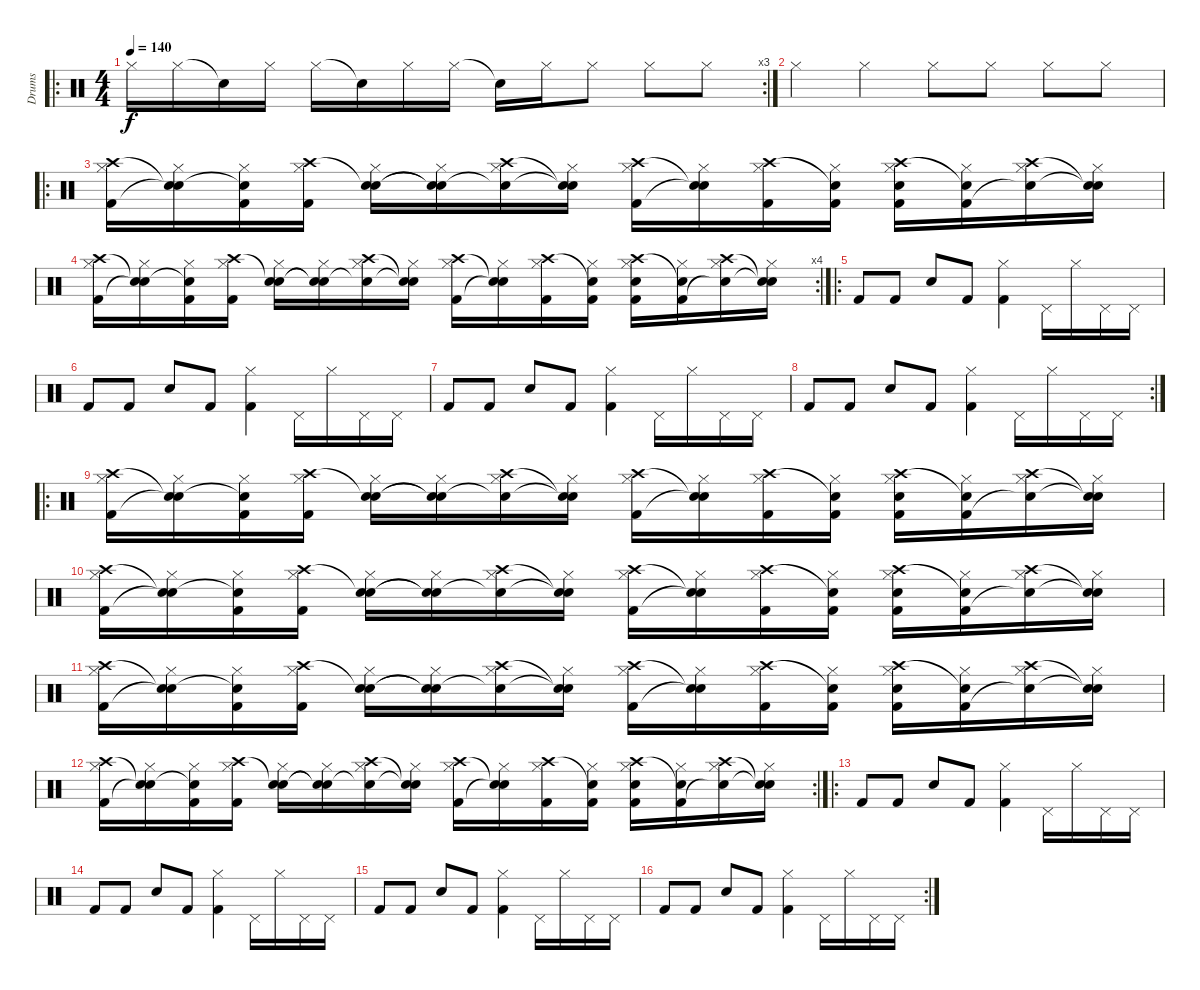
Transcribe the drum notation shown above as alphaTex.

\track ("Drums" "Drums") {instrument percussion}
\staff {score}
\articulation defaults
\ro
\rc 3
\ts (4 4)
\tempo 140
\clef neutral
\ks c "Hi-Hat (closed)".16{dy f} "Hi-Hat (closed)".16 "Snare (hit)"{t}.16 "Hi-Hat (closed)".16 "Hi-Hat (closed)".16 "Snare (hit)"{t}.16 "Hi-Hat (closed)".16 "Hi-Hat (closed)".16 "Snare (hit)"{t}.16 "Hi-Hat (closed)".16 "Hi-Hat (closed)".8 "Hi-Hat (closed)".8 "Hi-Hat (closed)".8
|
"Hi-Hat (closed)".4 "Hi-Hat (closed)".4 "Hi-Hat (closed)".8 "Hi-Hat (closed)".8 "Hi-Hat (closed)".8 "Hi-Hat (closed)".8 |
\ro
("Crash high (hit)" "Hi-Hat (closed)" "Kick (hit) 2").16 ("Snare (hit)"{t} "Hi-Hat (closed)" "Snare (hit)"{t}).16 ("Snare (hit)"{t} "Hi-Hat (closed)" "Kick (hit) 2").16 ("Crash high (hit)" "Hi-Hat (closed)" "Kick (hit) 2").16 ("Snare (hit)"{t} "Hi-Hat (closed)" "Electric Snare (hit)").16 ("Snare (hit)"{t} "Hi-Hat (closed)" "Snare (hit)"{t}).16 ("Crash high (hit)" "Hi-Hat (closed)" "Snare (hit)"{t}).16 ("Snare (hit)"{t} "Hi-Hat (closed)" "Snare (hit)"{t}).16 ("Crash high (hit)" "Hi-Hat (closed)" "Kick (hit) 2").16 ("Snare (hit)"{t} "Hi-Hat (closed)" "Snare (hit)"{t}).16 ("Crash high (hit)" "Hi-Hat (closed)" "Kick (hit) 2").16 ("Snare (hit)"{t} "Hi-Hat (closed)" "Kick (hit) 2").16 ("Crash high (hit)" "Hi-Hat (closed)" "Snare (hit) 2" "Kick (hit) 2").16 ("Snare (hit)"{t} "Hi-Hat (closed)" "Kick (hit) 2").16 ("Crash high (hit)" "Hi-Hat (closed)" "Snare (hit)"{t}).16 ("Snare (hit)"{t} "Hi-Hat (closed)" "Snare (hit)"{t}).16 |
\rc 4
("Crash high (hit)" "Hi-Hat (closed)" "Kick (hit) 2").16 ("Snare (hit)"{t} "Hi-Hat (closed)" "Snare (hit)"{t}).16 ("Snare (hit)"{t} "Hi-Hat (closed)" "Kick (hit) 2").16 ("Crash high (hit)" "Hi-Hat (closed)" "Kick (hit) 2").16 ("Snare (hit)"{t} "Hi-Hat (closed)" "Electric Snare (hit)").16 ("Snare (hit)"{t} "Hi-Hat (closed)" "Snare (hit)"{t}).16 ("Crash high (hit)" "Hi-Hat (closed)" "Snare (hit)"{t}).16 ("Snare (hit)"{t} "Hi-Hat (closed)" "Snare (hit)"{t}).16 ("Crash high (hit)" "Hi-Hat (closed)" "Kick (hit) 2").16 ("Snare (hit)"{t} "Hi-Hat (closed)" "Snare (hit)"{t}).16 ("Crash high (hit)" "Hi-Hat (closed)" "Kick (hit) 2").16 ("Snare (hit)"{t} "Hi-Hat (closed)" "Kick (hit) 2").16 ("Crash high (hit)" "Hi-Hat (closed)" "Snare (hit) 2" "Kick (hit) 2").16 ("Snare (hit)"{t} "Hi-Hat (closed)" "Kick (hit) 2").16 ("Crash high (hit)" "Hi-Hat (closed)" "Snare (hit)"{t}).16 ("Snare (hit)"{t} "Hi-Hat (closed)" "Snare (hit)"{t}).16 |
\ro "Kick (hit) 2".8 "Kick (hit) 2".8 "Snare (hit) 2".8 "Kick (hit) 2".8
("Hi-Hat (closed)" "Kick (hit) 2").4 "Pedal Hi-Hat (hit)".16 "Hi-Hat (closed)".16 "Pedal Hi-Hat (hit)".16 "Pedal Hi-Hat (hit)".16 |
"Kick (hit) 2".8 "Kick (hit) 2".8 "Snare (hit) 2".8 "Kick (hit) 2".8 ("Hi-Hat (closed)" "Kick (hit) 2").4 "Pedal Hi-Hat (hit)".16 "Hi-Hat (closed)".16 "Pedal Hi-Hat (hit)".16 "Pedal Hi-Hat (hit)".16 |
"Kick (hit) 2".8 "Kick (hit) 2".8 "Snare (hit) 2".8 "Kick (hit) 2".8 ("Hi-Hat (closed)" "Kick (hit) 2").4 "Pedal Hi-Hat (hit)".16 "Hi-Hat (closed)".16 "Pedal Hi-Hat (hit)".16 "Pedal Hi-Hat (hit)".16 |
\rc 2 "Kick (hit) 2".8 "Kick (hit) 2".8 "Snare (hit) 2".8 "Kick (hit) 2".8
("Hi-Hat (closed)" "Kick (hit) 2").4 "Pedal Hi-Hat (hit)".16 "Hi-Hat (closed)".16 "Pedal Hi-Hat (hit)".16 "Pedal Hi-Hat (hit)".16 |
\ro
("Crash high (hit)" "Hi-Hat (closed)" "Kick (hit) 2").16 ("Snare (hit)"{t} "Hi-Hat (closed)" "Snare (hit)"{t}).16 ("Snare (hit)"{t} "Hi-Hat (closed)" "Kick (hit) 2").16 ("Crash high (hit)" "Hi-Hat (closed)" "Kick (hit) 2").16 ("Snare (hit)"{t} "Hi-Hat (closed)" "Electric Snare (hit)").16 ("Snare (hit)"{t} "Hi-Hat (closed)" "Snare (hit)"{t}).16 ("Crash high (hit)" "Hi-Hat (closed)" "Snare (hit)"{t}).16 ("Snare (hit)"{t} "Hi-Hat (closed)" "Snare (hit)"{t}).16 ("Crash high (hit)" "Hi-Hat (closed)" "Kick (hit) 2").16 ("Snare (hit)"{t} "Hi-Hat (closed)" "Snare (hit)"{t}).16 ("Crash high (hit)" "Hi-Hat (closed)" "Kick (hit) 2").16 ("Snare (hit)"{t} "Hi-Hat (closed)" "Kick (hit) 2").16 ("Crash high (hit)" "Hi-Hat (closed)" "Snare (hit) 2" "Kick (hit) 2").16 ("Snare (hit)"{t} "Hi-Hat (closed)" "Kick (hit) 2").16 ("Crash high (hit)" "Hi-Hat (closed)" "Snare (hit)"{t}).16 ("Snare (hit)"{t} "Hi-Hat (closed)" "Snare (hit)"{t}).16 |
("Crash high (hit)" "Hi-Hat (closed)" "Kick (hit) 2").16 ("Snare (hit)"{t} "Hi-Hat (closed)" "Snare (hit)"{t}).16 ("Snare (hit)"{t} "Hi-Hat (closed)" "Kick (hit) 2").16 ("Crash high (hit)" "Hi-Hat (closed)" "Kick (hit) 2").16 ("Snare (hit)"{t} "Hi-Hat (closed)" "Electric Snare (hit)").16 ("Snare (hit)"{t} "Hi-Hat (closed)" "Snare (hit)"{t}).16 ("Crash high (hit)" "Hi-Hat (closed)" "Snare (hit)"{t}).16 ("Snare (hit)"{t} "Hi-Hat (closed)" "Snare (hit)"{t}).16 ("Crash high (hit)" "Hi-Hat (closed)" "Kick (hit) 2").16 ("Snare (hit)"{t} "Hi-Hat (closed)" "Snare (hit)"{t}).16 ("Crash high (hit)" "Hi-Hat (closed)" "Kick (hit) 2").16 ("Snare (hit)"{t} "Hi-Hat (closed)" "Kick (hit) 2").16 ("Crash high (hit)" "Hi-Hat (closed)" "Snare (hit) 2" "Kick (hit) 2").16 ("Snare (hit)"{t} "Hi-Hat (closed)" "Kick (hit) 2").16 ("Crash high (hit)" "Hi-Hat (closed)" "Snare (hit)"{t}).16 ("Snare (hit)"{t} "Hi-Hat (closed)" "Snare (hit)"{t}).16 |
("Crash high (hit)" "Hi-Hat (closed)" "Kick (hit) 2").16 ("Snare (hit)"{t} "Hi-Hat (closed)" "Snare (hit)"{t}).16 ("Snare (hit)"{t} "Hi-Hat (closed)" "Kick (hit) 2").16 ("Crash high (hit)" "Hi-Hat (closed)" "Kick (hit) 2").16 ("Snare (hit)"{t} "Hi-Hat (closed)" "Electric Snare (hit)").16 ("Snare (hit)"{t} "Hi-Hat (closed)" "Snare (hit)"{t}).16 ("Crash high (hit)" "Hi-Hat (closed)" "Snare (hit)"{t}).16 ("Snare (hit)"{t} "Hi-Hat (closed)" "Snare (hit)"{t}).16 ("Crash high (hit)" "Hi-Hat (closed)" "Kick (hit) 2").16 ("Snare (hit)"{t} "Hi-Hat (closed)" "Snare (hit)"{t}).16 ("Crash high (hit)" "Hi-Hat (closed)" "Kick (hit) 2").16 ("Snare (hit)"{t} "Hi-Hat (closed)" "Kick (hit) 2").16 ("Crash high (hit)" "Hi-Hat (closed)" "Snare (hit) 2" "Kick (hit) 2").16 ("Snare (hit)"{t} "Hi-Hat (closed)" "Kick (hit) 2").16 ("Crash high (hit)" "Hi-Hat (closed)" "Snare (hit)"{t}).16 ("Snare (hit)"{t} "Hi-Hat (closed)" "Snare (hit)"{t}).16 |
\rc 2
("Crash high (hit)" "Hi-Hat (closed)" "Kick (hit) 2").16 ("Snare (hit)"{t} "Hi-Hat (closed)" "Snare (hit)"{t}).16 ("Snare (hit)"{t} "Hi-Hat (closed)" "Kick (hit) 2").16 ("Crash high (hit)" "Hi-Hat (closed)" "Kick (hit) 2").16 ("Snare (hit)"{t} "Hi-Hat (closed)" "Electric Snare (hit)").16 ("Snare (hit)"{t} "Hi-Hat (closed)" "Snare (hit)"{t}).16 ("Crash high (hit)" "Hi-Hat (closed)" "Snare (hit)"{t}).16 ("Snare (hit)"{t} "Hi-Hat (closed)" "Snare (hit)"{t}).16 ("Crash high (hit)" "Hi-Hat (closed)" "Kick (hit) 2").16 ("Snare (hit)"{t} "Hi-Hat (closed)" "Snare (hit)"{t}).16 ("Crash high (hit)" "Hi-Hat (closed)" "Kick (hit) 2").16 ("Snare (hit)"{t} "Hi-Hat (closed)" "Kick (hit) 2").16 ("Crash high (hit)" "Hi-Hat (closed)" "Snare (hit) 2" "Kick (hit) 2").16 ("Snare (hit)"{t} "Hi-Hat (closed)" "Kick (hit) 2").16 ("Crash high (hit)" "Hi-Hat (closed)" "Snare (hit)"{t}).16 ("Snare (hit)"{t} "Hi-Hat (closed)" "Snare (hit)"{t}).16 |
\ro "Kick (hit) 2".8 "Kick (hit) 2".8 "Snare (hit) 2".8 "Kick (hit) 2".8
("Hi-Hat (closed)" "Kick (hit) 2").4 "Pedal Hi-Hat (hit)".16 "Hi-Hat (closed)".16 "Pedal Hi-Hat (hit)".16 "Pedal Hi-Hat (hit)".16 |
"Kick (hit) 2".8 "Kick (hit) 2".8 "Snare (hit) 2".8 "Kick (hit) 2".8 ("Hi-Hat (closed)" "Kick (hit) 2").4 "Pedal Hi-Hat (hit)".16 "Hi-Hat (closed)".16 "Pedal Hi-Hat (hit)".16 "Pedal Hi-Hat (hit)".16 |
"Kick (hit) 2".8 "Kick (hit) 2".8 "Snare (hit) 2".8 "Kick (hit) 2".8 ("Hi-Hat (closed)" "Kick (hit) 2").4 "Pedal Hi-Hat (hit)".16 "Hi-Hat (closed)".16 "Pedal Hi-Hat (hit)".16 "Pedal Hi-Hat (hit)".16 |
\rc 2 "Kick (hit) 2".8 "Kick (hit) 2".8 "Snare (hit) 2".8 "Kick (hit) 2".8
("Hi-Hat (closed)" "Kick (hit) 2").4 "Pedal Hi-Hat (hit)".16 "Hi-Hat (closed)".16 "Pedal Hi-Hat (hit)".16 "Pedal Hi-Hat (hit)".16
